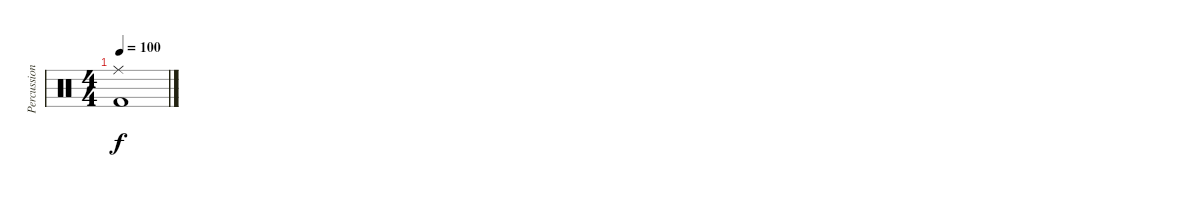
\track ("Percussion" "Percussion") {instrument percussion}
\staff {score}
\articulation defaults
\ts (4 4)
\tempo 100
\clef neutral
\ks c
("Ride (middle)" "Kick (hit) 2").1{dy f}
